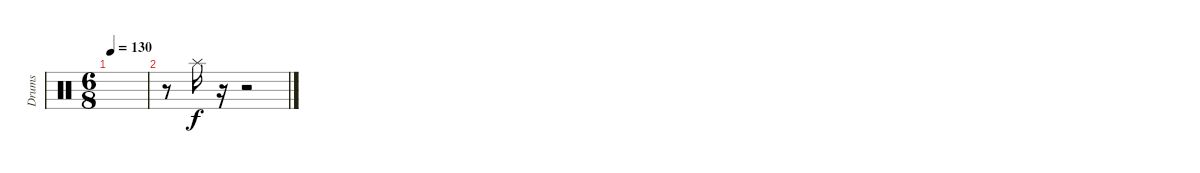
\track ("Drums" "Drums") {instrument percussion}
\staff {score}
\articulation defaults
\ts (6 8)
\tempo 130
\clef neutral
\ks c
|
r.8 "Splash (hit)".16 r.16 r.2
